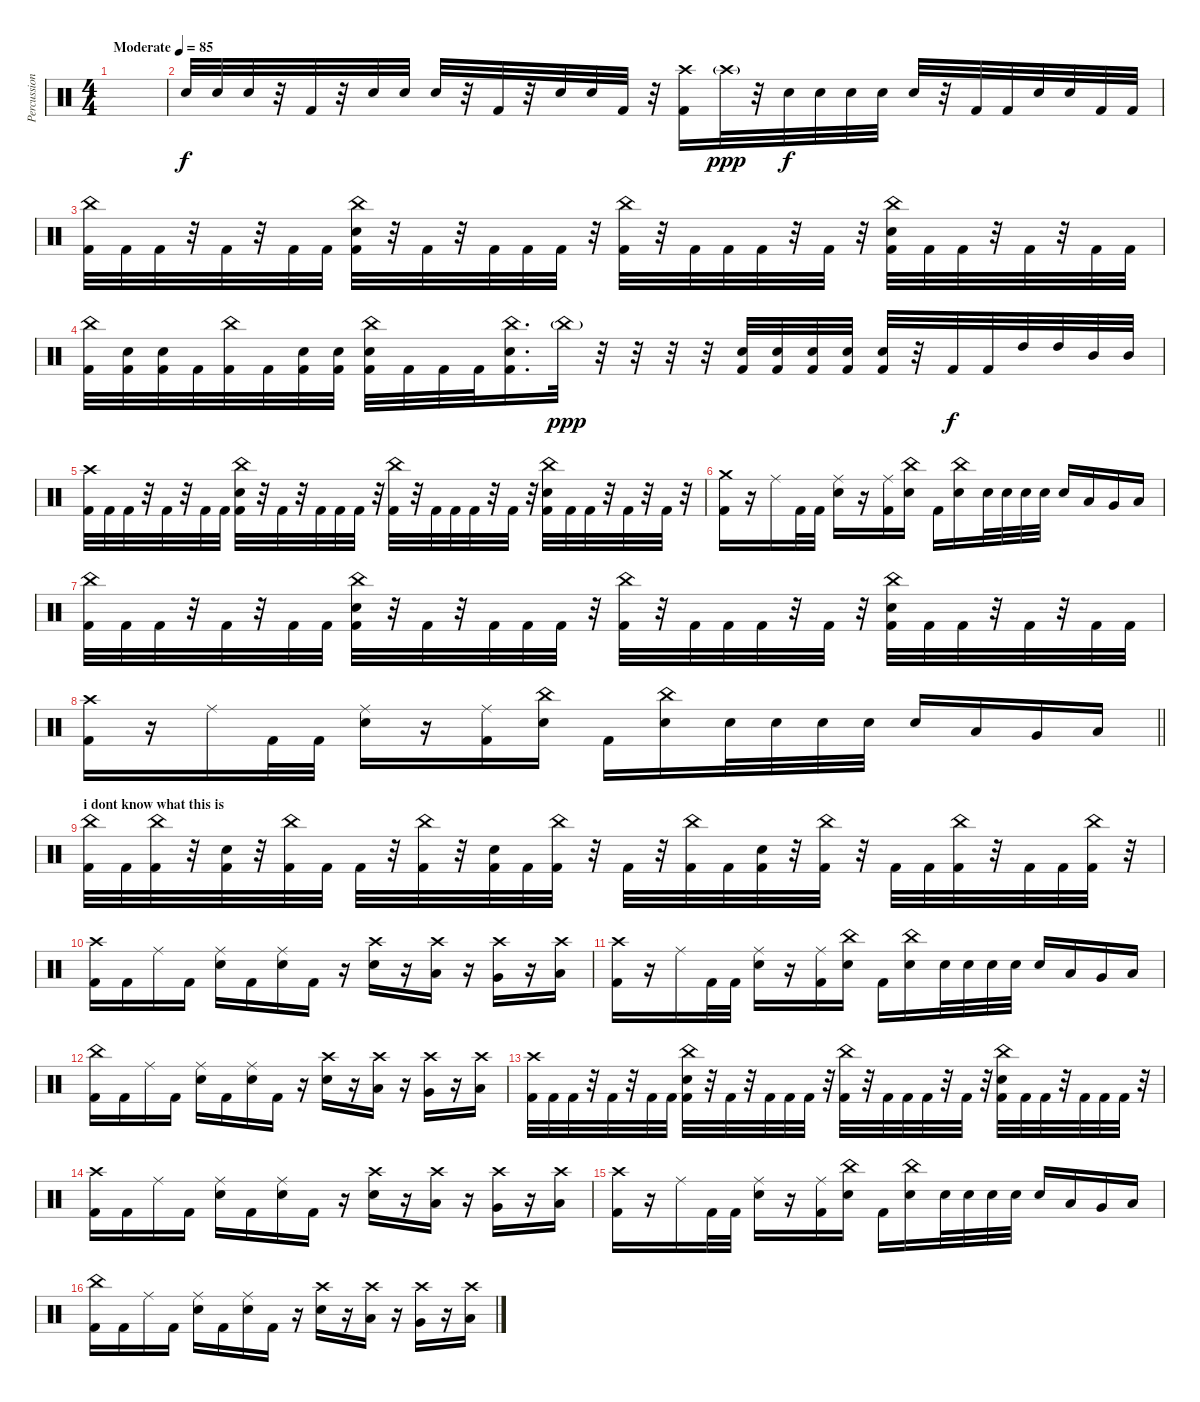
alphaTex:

\track ("Percussion" "Percussion") {instrument percussion}
\staff {score}
\articulation defaults
\ts (4 4)
\tempo (85 "Moderate")
\clef neutral
\ks c
|
"Snare (hit) 2".32 "Snare (hit) 2".32 "Snare (hit) 2".32 r.32 "Kick (hit) 2".32 r.32 "Snare (hit) 2".32 "Snare (hit) 2".32 "Snare (hit) 2".32 r.32 "Kick (hit) 2".32 r.32 "Snare (hit) 2".32 "Snare (hit) 2".32 "Kick (hit) 2".32 r.32 ("Crash high (hit)" "Kick (hit) 2").16 "Crash high (hit)"{g}.32{dy ppp} r.32 "Snare (hit) 2".32{dy f} "Snare (hit) 2".32 "Snare (hit) 2".32 "Snare (hit) 2".32 "Snare (hit) 2".32 r.32 "Kick (hit) 2".32 "Kick (hit) 2".32 "Snare (hit) 2".32 "Snare (hit) 2".32 "Kick (hit) 2".32 "Kick (hit) 2".32 |
("Kick (hit) 2" "China (hit)").32 "Kick (hit) 2".32 "Kick (hit) 2".32 r.32 "Kick (hit) 2".32 r.32 "Kick (hit) 2".32 "Kick (hit) 2".32 ("Kick (hit) 2" "Snare (hit) 2" "China (hit)").32 r.32 "Kick (hit) 2".32 r.32 "Kick (hit) 2".32 "Kick (hit) 2".32 "Kick (hit) 2".32 r.32 ("Kick (hit) 2" "China (hit)").32 r.32 "Kick (hit) 2".32 "Kick (hit) 2".32 "Kick (hit) 2".32 r.32 "Kick (hit) 2".32 r.32 ("Kick (hit) 2" "Snare (hit) 2" "China (hit)").32 "Kick (hit) 2".32 "Kick (hit) 2".32 r.32 "Kick (hit) 2".32 r.32 "Kick (hit) 2".32 "Kick (hit) 2".32 |
("China (hit)" "Kick (hit) 2").32 ("Snare (hit) 2" "Kick (hit) 2").32 ("Snare (hit) 2" "Kick (hit) 2").32 "Kick (hit) 2".32 ("China (hit)" "Kick (hit) 2").32 "Kick (hit) 2".32 ("Snare (hit) 2" "Kick (hit) 2").32 ("Snare (hit) 2" "Kick (hit) 2").32 ("Snare (hit) 2" "China (hit)" "Kick (hit) 2").32 "Kick (hit) 2".32 "Kick (hit) 2".32 "Kick (hit) 2".32 ("Snare (hit) 2" "China (hit)" "Kick (hit) 2").16{d} "China (hit)"{g}.32{dy ppp} r.32 r.32 r.32 r.32 ("Snare (hit) 2" "Kick (hit) 2").32 ("Snare (hit) 2" "Kick (hit) 2").32 ("Snare (hit) 2" "Kick (hit) 2").32 ("Snare (hit) 2" "Kick (hit) 2").32 ("Snare (hit) 2" "Kick (hit) 2").32 r.32 "Kick (hit) 2".32{dy f} "Kick (hit) 2".32 "High Tom (hit)".32 "High Tom (hit)".32 "Mid Tom (hit)".32 "Mid Tom (hit)".32 |
("Kick (hit) 2" "Crash high (hit)").32 "Kick (hit) 2".32 "Kick (hit) 2".32 r.32 "Kick (hit) 2".32 r.32 "Kick (hit) 2".32 "Kick (hit) 2".32 ("Kick (hit) 2" "Snare (hit) 2" "China (hit)").32 r.32 "Kick (hit) 2".32 r.32 "Kick (hit) 2".32 "Kick (hit) 2".32 "Kick (hit) 2".32 r.32 ("Kick (hit) 2" "China (hit)").32 r.32 "Kick (hit) 2".32 "Kick (hit) 2".32 "Kick (hit) 2".32 r.32 "Kick (hit) 2".32 r.32 ("Kick (hit) 2" "Snare (hit) 2" "China (hit)").32 "Kick (hit) 2".32 "Kick (hit) 2".32 r.32 "Kick (hit) 2".32 r.32 "Kick (hit) 2".32 r.32 |
("Kick (hit) 2" "Crash medium (hit)").16 r.16 "Ride (middle)".16 "Kick (hit) 2".32 "Kick (hit) 2".32 ("Snare (hit) 2" "Ride (middle)").16 r.16 ("Ride (middle)" "Kick (hit) 2").16 ("China (hit)" "Snare (hit) 2").16 "Kick (hit) 2".16 ("China (hit)" "Snare (hit) 2").16 "Snare (hit) 2".32 "Snare (hit) 2".32 "Snare (hit) 2".32 "Snare (hit) 2".32 "Snare (hit) 2".16 "Low Tom (hit)".16 "Very Low Tom (hit)".16 "Low Floor Tom (hit)".16 |
("Kick (hit) 2" "China (hit)").32 "Kick (hit) 2".32 "Kick (hit) 2".32 r.32 "Kick (hit) 2".32 r.32 "Kick (hit) 2".32 "Kick (hit) 2".32 ("Kick (hit) 2" "Snare (hit) 2" "China (hit)").32 r.32 "Kick (hit) 2".32 r.32 "Kick (hit) 2".32 "Kick (hit) 2".32 "Kick (hit) 2".32 r.32 ("Kick (hit) 2" "China (hit)").32 r.32 "Kick (hit) 2".32 "Kick (hit) 2".32 "Kick (hit) 2".32 r.32 "Kick (hit) 2".32 r.32 ("Kick (hit) 2" "Snare (hit) 2" "China (hit)").32 "Kick (hit) 2".32 "Kick (hit) 2".32 r.32 "Kick (hit) 2".32 r.32 "Kick (hit) 2".32 "Kick (hit) 2".32 |
\barLineRight lightlight
("Kick (hit) 2" "Crash high (hit)").16 r.16 "Ride (middle)".16 "Kick (hit) 2".32 "Kick (hit) 2".32 ("Snare (hit) 2" "Ride (middle)").16 r.16 ("Ride (middle)" "Kick (hit) 2").16 ("China (hit)" "Snare (hit) 2").16 "Kick (hit) 2".16 ("China (hit)" "Snare (hit) 2").16 "Snare (hit) 2".32 "Snare (hit) 2".32 "Snare (hit) 2".32 "Snare (hit) 2".32 "Snare (hit) 2".16 "Low Tom (hit)".16 "Very Low Tom (hit)".16 "Low Floor Tom (hit)".16 |
\section ("" "i dont know what this is")
("Kick (hit) 2" "China (hit)").32 "Kick (hit) 2".32 ("Kick (hit) 2" "China (hit)").32 r.32 ("Kick (hit) 2" "Snare (hit) 2").32 r.32 ("Kick (hit) 2" "China (hit)").32 "Kick (hit) 2".32 "Kick (hit) 2".32 r.32 ("Kick (hit) 2" "China (hit)").32 r.32 ("Kick (hit) 2" "Snare (hit) 2").32 "Kick (hit) 2".32 ("Kick (hit) 2" "China (hit)").32 r.32 "Kick (hit) 2".32 r.32 ("Kick (hit) 2" "China (hit)").32 "Kick (hit) 2".32 ("Kick (hit) 2" "Snare (hit) 2").32 r.32 ("Kick (hit) 2" "China (hit)").32 r.32 "Kick (hit) 2".32 "Kick (hit) 2".32 ("Kick (hit) 2" "China (hit)").32 r.32 "Kick (hit) 2".32 "Kick (hit) 2".32 ("Kick (hit) 2" "China (hit)").32 r.32 |
("Kick (hit) 2" "Crash high (hit)").16 "Kick (hit) 2".16 "Ride (middle)".16 "Kick (hit) 2".16 ("Snare (hit) 2" "Ride (middle)").16 "Kick (hit) 2".16 ("Snare (hit) 2" "Ride (middle)").16 "Kick (hit) 2".16 r.16 ("Crash high (hit)" "Snare (hit) 2").16 r.16 ("Crash high (hit)" "Low Tom (hit)").16 r.16 ("Crash high (hit)" "Very Low Tom (hit)").16 r.16 ("Crash high (hit)" "Low Floor Tom (hit)").16 |
("Kick (hit) 2" "Crash high (hit)").16 r.16 "Ride (middle)".16 "Kick (hit) 2".32 "Kick (hit) 2".32 ("Snare (hit) 2" "Ride (middle)").16 r.16 ("Ride (middle)" "Kick (hit) 2").16 ("China (hit)" "Snare (hit) 2").16 "Kick (hit) 2".16 ("China (hit)" "Snare (hit) 2").16 "Snare (hit) 2".32 "Snare (hit) 2".32 "Snare (hit) 2".32 "Snare (hit) 2".32 "Snare (hit) 2".16 "Low Tom (hit)".16 "Very Low Tom (hit)".16 "Low Floor Tom (hit)".16 |
("Kick (hit) 2" "China (hit)").16 "Kick (hit) 2".16 "Ride (middle)".16 "Kick (hit) 2".16 ("Snare (hit) 2" "Ride (middle)").16 "Kick (hit) 2".16 ("Snare (hit) 2" "Ride (middle)").16 "Kick (hit) 2".16 r.16 ("Crash high (hit)" "Snare (hit) 2").16 r.16 ("Crash high (hit)" "Low Tom (hit)").16 r.16 ("Crash high (hit)" "Very Low Tom (hit)").16 r.16 ("Crash high (hit)" "Low Floor Tom (hit)").16 |
("Kick (hit) 2" "Crash high (hit)").32 "Kick (hit) 2".32 "Kick (hit) 2".32 r.32 "Kick (hit) 2".32 r.32 "Kick (hit) 2".32 "Kick (hit) 2".32 ("Kick (hit) 2" "Snare (hit) 2" "China (hit)").32 r.32 "Kick (hit) 2".32 r.32 "Kick (hit) 2".32 "Kick (hit) 2".32 "Kick (hit) 2".32 r.32 ("Kick (hit) 2" "China (hit)").32 r.32 "Kick (hit) 2".32 "Kick (hit) 2".32 "Kick (hit) 2".32 r.32 "Kick (hit) 2".32 r.32 ("Kick (hit) 2" "Snare (hit) 2" "China (hit)").32 "Kick (hit) 2".32 "Kick (hit) 2".32 r.32 "Kick (hit) 2".32 "Kick (hit) 2".32 "Kick (hit) 2".32 r.32 |
("Kick (hit) 2" "Crash high (hit)").16 "Kick (hit) 2".16 "Ride (middle)".16 "Kick (hit) 2".16 ("Snare (hit) 2" "Ride (middle)").16 "Kick (hit) 2".16 ("Snare (hit) 2" "Ride (middle)").16 "Kick (hit) 2".16 r.16 ("Crash high (hit)" "Snare (hit) 2").16 r.16 ("Crash high (hit)" "Low Tom (hit)").16 r.16 ("Crash high (hit)" "Very Low Tom (hit)").16 r.16 ("Crash high (hit)" "Low Floor Tom (hit)").16 |
("Kick (hit) 2" "Crash high (hit)").16 r.16 "Ride (middle)".16 "Kick (hit) 2".32 "Kick (hit) 2".32 ("Snare (hit) 2" "Ride (middle)").16 r.16 ("Ride (middle)" "Kick (hit) 2").16 ("China (hit)" "Snare (hit) 2").16 "Kick (hit) 2".16 ("China (hit)" "Snare (hit) 2").16 "Snare (hit) 2".32 "Snare (hit) 2".32 "Snare (hit) 2".32 "Snare (hit) 2".32 "Snare (hit) 2".16 "Low Tom (hit)".16 "Very Low Tom (hit)".16 "Low Floor Tom (hit)".16 |
("Kick (hit) 2" "China (hit)").16 "Kick (hit) 2".16 "Ride (middle)".16 "Kick (hit) 2".16 ("Snare (hit) 2" "Ride (middle)").16 "Kick (hit) 2".16 ("Snare (hit) 2" "Ride (middle)").16 "Kick (hit) 2".16 r.16 ("Crash high (hit)" "Snare (hit) 2").16 r.16 ("Crash high (hit)" "Low Tom (hit)").16 r.16 ("Crash high (hit)" "Very Low Tom (hit)").16 r.16 ("Crash high (hit)" "Low Floor Tom (hit)").16
